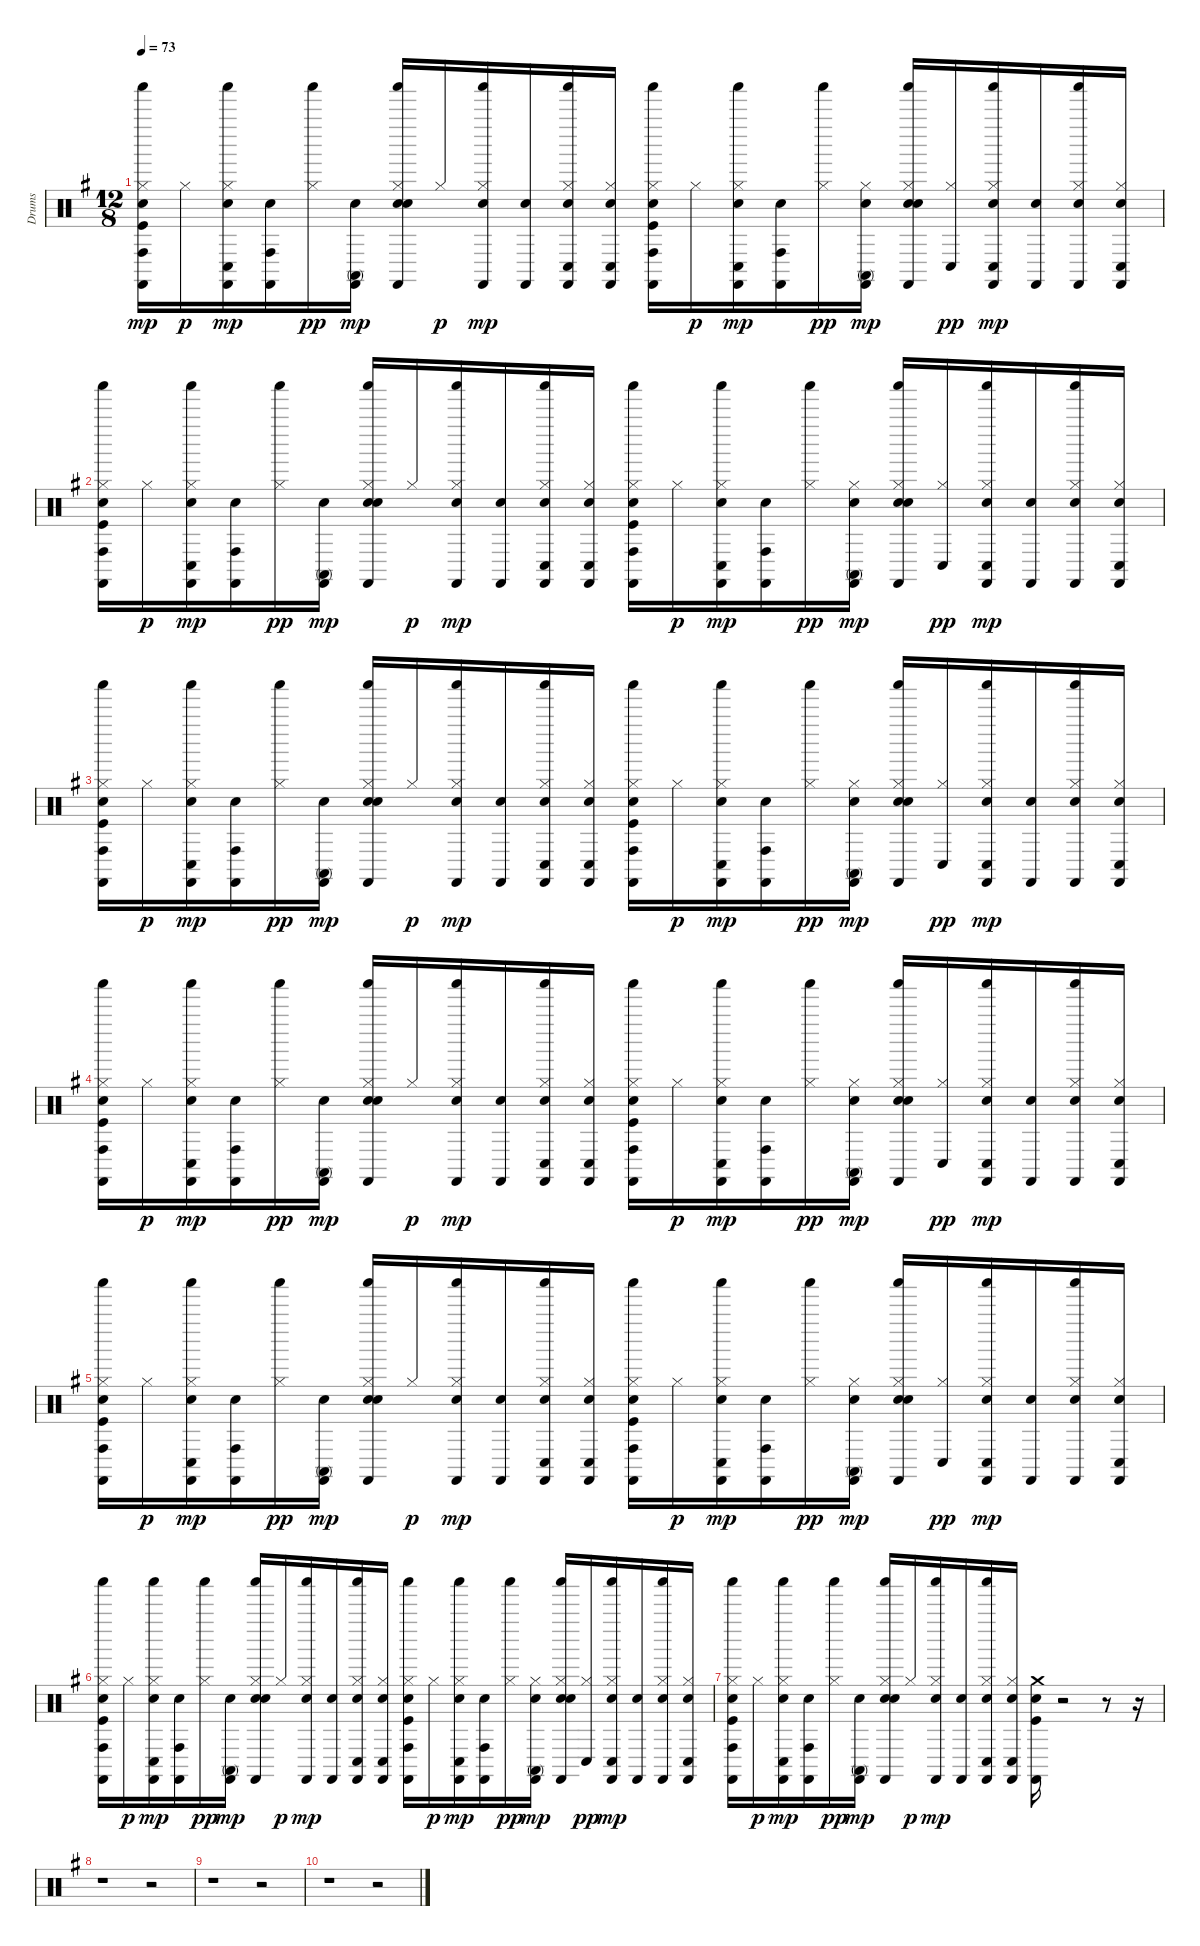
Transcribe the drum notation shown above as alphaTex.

\track ("Drums" "Drums") {instrument percussion}
\staff {score}
\articulation defaults
\ts (12 8)
\tempo 73
\clef neutral
\ks g
("Kick (hit)" "Hand Clap (hit)" "Hi-Hat (closed)" "Conga high (hit)" "Shaker (hit)" "Castanets (hit)").16{dy mp} "Hi-Hat (closed)".16{dy p} ("Hand Clap (hit)" "Hi-Hat (closed)" "Conga low (hit)" "Shaker (hit)" "Castanets (hit)").16{dy mp} ("Hand Clap (hit)" "Conga high (hit)" "Castanets (hit)").16 ("Hi-Hat (closed)" "Shaker (hit)").16{dy pp} ("Hand Clap (hit)" "Conga high (mute)" "Castanets (hit)").16{dy mp} ("Hand Clap (hit)" "Electric Snare (hit)" "Hi-Hat (closed)" "Shaker (hit)" "Castanets (hit)").16 "Hi-Hat (closed)".16{dy p} ("Hand Clap (hit)" "Hi-Hat (closed)" "Shaker (hit)" "Castanets (hit)").16{dy mp} ("Hand Clap (hit)" "Castanets (hit)").16 ("Hand Clap (hit)" "Hi-Hat (closed)" "Conga low (hit)" "Shaker (hit)" "Castanets (hit)").16 ("Hand Clap (hit)" "Hi-Hat (closed)" "Conga low (hit)" "Castanets (hit)").16 ("Kick (hit)" "Hand Clap (hit)" "Hi-Hat (closed)" "Conga high (hit)" "Shaker (hit)" "Castanets (hit)").16 "Hi-Hat (closed)".16{dy p} ("Hand Clap (hit)" "Hi-Hat (closed)" "Conga low (hit)" "Shaker (hit)" "Castanets (hit)").16{dy mp} ("Hand Clap (hit)" "Conga high (hit)" "Castanets (hit)").16 ("Hi-Hat (closed)" "Shaker (hit)").16{dy pp} ("Hand Clap (hit)" "Hi-Hat (closed)" "Conga high (mute)" "Castanets (hit)").16{dy mp} ("Hand Clap (hit)" "Electric Snare (hit)" "Hi-Hat (closed)" "Shaker (hit)" "Castanets (hit)").16 ("Hi-Hat (closed)" "Conga low (hit)").16{dy pp} ("Hand Clap (hit)" "Hi-Hat (closed)" "Conga low (hit)" "Shaker (hit)" "Castanets (hit)").16{dy mp} ("Hand Clap (hit)" "Castanets (hit)").16 ("Hand Clap (hit)" "Hi-Hat (closed)" "Shaker (hit)" "Castanets (hit)").16 ("Hand Clap (hit)" "Hi-Hat (closed)" "Conga low (hit)" "Castanets (hit)").16 |
("Kick (hit)" "Hand Clap (hit)" "Hi-Hat (closed)" "Conga high (hit)" "Shaker (hit)" "Castanets (hit)").16 "Hi-Hat (closed)".16{dy p} ("Hand Clap (hit)" "Hi-Hat (closed)" "Conga low (hit)" "Shaker (hit)" "Castanets (hit)").16{dy mp} ("Hand Clap (hit)" "Conga high (hit)" "Castanets (hit)").16 ("Hi-Hat (closed)" "Shaker (hit)").16{dy pp} ("Hand Clap (hit)" "Conga high (mute)" "Castanets (hit)").16{dy mp} ("Hand Clap (hit)" "Electric Snare (hit)" "Hi-Hat (closed)" "Shaker (hit)" "Castanets (hit)").16 "Hi-Hat (closed)".16{dy p} ("Hand Clap (hit)" "Hi-Hat (closed)" "Shaker (hit)" "Castanets (hit)").16{dy mp} ("Hand Clap (hit)" "Castanets (hit)").16 ("Hand Clap (hit)" "Hi-Hat (closed)" "Conga low (hit)" "Shaker (hit)" "Castanets (hit)").16 ("Hand Clap (hit)" "Hi-Hat (closed)" "Conga low (hit)" "Castanets (hit)").16 ("Kick (hit)" "Hand Clap (hit)" "Hi-Hat (closed)" "Conga high (hit)" "Shaker (hit)" "Castanets (hit)").16 "Hi-Hat (closed)".16{dy p} ("Hand Clap (hit)" "Hi-Hat (closed)" "Conga low (hit)" "Shaker (hit)" "Castanets (hit)").16{dy mp} ("Hand Clap (hit)" "Conga high (hit)" "Castanets (hit)").16 ("Hi-Hat (closed)" "Shaker (hit)").16{dy pp} ("Hand Clap (hit)" "Hi-Hat (closed)" "Conga high (mute)" "Castanets (hit)").16{dy mp} ("Hand Clap (hit)" "Electric Snare (hit)" "Hi-Hat (closed)" "Shaker (hit)" "Castanets (hit)").16 ("Hi-Hat (closed)" "Conga low (hit)").16{dy pp} ("Hand Clap (hit)" "Hi-Hat (closed)" "Conga low (hit)" "Shaker (hit)" "Castanets (hit)").16{dy mp} ("Hand Clap (hit)" "Castanets (hit)").16 ("Hand Clap (hit)" "Hi-Hat (closed)" "Shaker (hit)" "Castanets (hit)").16 ("Hand Clap (hit)" "Hi-Hat (closed)" "Conga low (hit)" "Castanets (hit)").16 |
("Kick (hit)" "Hand Clap (hit)" "Hi-Hat (closed)" "Conga high (hit)" "Shaker (hit)" "Castanets (hit)").16 "Hi-Hat (closed)".16{dy p} ("Hand Clap (hit)" "Hi-Hat (closed)" "Conga low (hit)" "Shaker (hit)" "Castanets (hit)").16{dy mp} ("Hand Clap (hit)" "Conga high (hit)" "Castanets (hit)").16 ("Hi-Hat (closed)" "Shaker (hit)").16{dy pp} ("Hand Clap (hit)" "Conga high (mute)" "Castanets (hit)").16{dy mp} ("Hand Clap (hit)" "Electric Snare (hit)" "Hi-Hat (closed)" "Shaker (hit)" "Castanets (hit)").16 "Hi-Hat (closed)".16{dy p} ("Hand Clap (hit)" "Hi-Hat (closed)" "Shaker (hit)" "Castanets (hit)").16{dy mp} ("Hand Clap (hit)" "Castanets (hit)").16 ("Hand Clap (hit)" "Hi-Hat (closed)" "Conga low (hit)" "Shaker (hit)" "Castanets (hit)").16 ("Hand Clap (hit)" "Hi-Hat (closed)" "Conga low (hit)" "Castanets (hit)").16 ("Kick (hit)" "Hand Clap (hit)" "Hi-Hat (closed)" "Conga high (hit)" "Shaker (hit)" "Castanets (hit)").16 "Hi-Hat (closed)".16{dy p} ("Hand Clap (hit)" "Hi-Hat (closed)" "Conga low (hit)" "Shaker (hit)" "Castanets (hit)").16{dy mp} ("Hand Clap (hit)" "Conga high (hit)" "Castanets (hit)").16 ("Hi-Hat (closed)" "Shaker (hit)").16{dy pp} ("Hand Clap (hit)" "Hi-Hat (closed)" "Conga high (mute)" "Castanets (hit)").16{dy mp} ("Hand Clap (hit)" "Electric Snare (hit)" "Hi-Hat (closed)" "Shaker (hit)" "Castanets (hit)").16 ("Hi-Hat (closed)" "Conga low (hit)").16{dy pp} ("Hand Clap (hit)" "Hi-Hat (closed)" "Conga low (hit)" "Shaker (hit)" "Castanets (hit)").16{dy mp} ("Hand Clap (hit)" "Castanets (hit)").16 ("Hand Clap (hit)" "Hi-Hat (closed)" "Shaker (hit)" "Castanets (hit)").16 ("Hand Clap (hit)" "Hi-Hat (closed)" "Conga low (hit)" "Castanets (hit)").16 |
("Kick (hit)" "Hand Clap (hit)" "Hi-Hat (closed)" "Conga high (hit)" "Shaker (hit)" "Castanets (hit)").16 "Hi-Hat (closed)".16{dy p} ("Hand Clap (hit)" "Hi-Hat (closed)" "Conga low (hit)" "Shaker (hit)" "Castanets (hit)").16{dy mp} ("Hand Clap (hit)" "Conga high (hit)" "Castanets (hit)").16 ("Hi-Hat (closed)" "Shaker (hit)").16{dy pp} ("Hand Clap (hit)" "Conga high (mute)" "Castanets (hit)").16{dy mp} ("Hand Clap (hit)" "Electric Snare (hit)" "Hi-Hat (closed)" "Shaker (hit)" "Castanets (hit)").16 "Hi-Hat (closed)".16{dy p} ("Hand Clap (hit)" "Hi-Hat (closed)" "Shaker (hit)" "Castanets (hit)").16{dy mp} ("Hand Clap (hit)" "Castanets (hit)").16 ("Hand Clap (hit)" "Hi-Hat (closed)" "Conga low (hit)" "Shaker (hit)" "Castanets (hit)").16 ("Hand Clap (hit)" "Hi-Hat (closed)" "Conga low (hit)" "Castanets (hit)").16 ("Kick (hit)" "Hand Clap (hit)" "Hi-Hat (closed)" "Conga high (hit)" "Shaker (hit)" "Castanets (hit)").16 "Hi-Hat (closed)".16{dy p} ("Hand Clap (hit)" "Hi-Hat (closed)" "Conga low (hit)" "Shaker (hit)" "Castanets (hit)").16{dy mp} ("Hand Clap (hit)" "Conga high (hit)" "Castanets (hit)").16 ("Hi-Hat (closed)" "Shaker (hit)").16{dy pp} ("Hand Clap (hit)" "Hi-Hat (closed)" "Conga high (mute)" "Castanets (hit)").16{dy mp} ("Hand Clap (hit)" "Electric Snare (hit)" "Hi-Hat (closed)" "Shaker (hit)" "Castanets (hit)").16 ("Hi-Hat (closed)" "Conga low (hit)").16{dy pp} ("Hand Clap (hit)" "Hi-Hat (closed)" "Conga low (hit)" "Shaker (hit)" "Castanets (hit)").16{dy mp} ("Hand Clap (hit)" "Castanets (hit)").16 ("Hand Clap (hit)" "Hi-Hat (closed)" "Shaker (hit)" "Castanets (hit)").16 ("Hand Clap (hit)" "Hi-Hat (closed)" "Conga low (hit)" "Castanets (hit)").16 |
("Kick (hit)" "Hand Clap (hit)" "Hi-Hat (closed)" "Conga high (hit)" "Shaker (hit)" "Castanets (hit)").16 "Hi-Hat (closed)".16{dy p} ("Hand Clap (hit)" "Hi-Hat (closed)" "Conga low (hit)" "Shaker (hit)" "Castanets (hit)").16{dy mp} ("Hand Clap (hit)" "Conga high (hit)" "Castanets (hit)").16 ("Hi-Hat (closed)" "Shaker (hit)").16{dy pp} ("Hand Clap (hit)" "Conga high (mute)" "Castanets (hit)").16{dy mp} ("Hand Clap (hit)" "Electric Snare (hit)" "Hi-Hat (closed)" "Shaker (hit)" "Castanets (hit)").16 "Hi-Hat (closed)".16{dy p} ("Hand Clap (hit)" "Hi-Hat (closed)" "Shaker (hit)" "Castanets (hit)").16{dy mp} ("Hand Clap (hit)" "Castanets (hit)").16 ("Hand Clap (hit)" "Hi-Hat (closed)" "Conga low (hit)" "Shaker (hit)" "Castanets (hit)").16 ("Hand Clap (hit)" "Hi-Hat (closed)" "Conga low (hit)" "Castanets (hit)").16 ("Kick (hit)" "Hand Clap (hit)" "Hi-Hat (closed)" "Conga high (hit)" "Shaker (hit)" "Castanets (hit)").16 "Hi-Hat (closed)".16{dy p} ("Hand Clap (hit)" "Hi-Hat (closed)" "Conga low (hit)" "Shaker (hit)" "Castanets (hit)").16{dy mp} ("Hand Clap (hit)" "Conga high (hit)" "Castanets (hit)").16 ("Hi-Hat (closed)" "Shaker (hit)").16{dy pp} ("Hand Clap (hit)" "Hi-Hat (closed)" "Conga high (mute)" "Castanets (hit)").16{dy mp} ("Hand Clap (hit)" "Electric Snare (hit)" "Hi-Hat (closed)" "Shaker (hit)" "Castanets (hit)").16 ("Hi-Hat (closed)" "Conga low (hit)").16{dy pp} ("Hand Clap (hit)" "Hi-Hat (closed)" "Conga low (hit)" "Shaker (hit)" "Castanets (hit)").16{dy mp} ("Hand Clap (hit)" "Castanets (hit)").16 ("Hand Clap (hit)" "Hi-Hat (closed)" "Shaker (hit)" "Castanets (hit)").16 ("Hand Clap (hit)" "Hi-Hat (closed)" "Conga low (hit)" "Castanets (hit)").16 |
("Kick (hit)" "Hand Clap (hit)" "Hi-Hat (closed)" "Conga high (hit)" "Shaker (hit)" "Castanets (hit)").16 "Hi-Hat (closed)".16{dy p} ("Hand Clap (hit)" "Hi-Hat (closed)" "Conga low (hit)" "Shaker (hit)" "Castanets (hit)").16{dy mp} ("Hand Clap (hit)" "Conga high (hit)" "Castanets (hit)").16 ("Hi-Hat (closed)" "Shaker (hit)").16{dy pp} ("Hand Clap (hit)" "Conga high (mute)" "Castanets (hit)").16{dy mp} ("Hand Clap (hit)" "Electric Snare (hit)" "Hi-Hat (closed)" "Shaker (hit)" "Castanets (hit)").16 "Hi-Hat (closed)".16{dy p} ("Hand Clap (hit)" "Hi-Hat (closed)" "Shaker (hit)" "Castanets (hit)").16{dy mp} ("Hand Clap (hit)" "Castanets (hit)").16 ("Hand Clap (hit)" "Hi-Hat (closed)" "Conga low (hit)" "Shaker (hit)" "Castanets (hit)").16 ("Hand Clap (hit)" "Hi-Hat (closed)" "Conga low (hit)" "Castanets (hit)").16 ("Kick (hit)" "Hand Clap (hit)" "Hi-Hat (closed)" "Conga high (hit)" "Shaker (hit)" "Castanets (hit)").16 "Hi-Hat (closed)".16{dy p} ("Hand Clap (hit)" "Hi-Hat (closed)" "Conga low (hit)" "Shaker (hit)" "Castanets (hit)").16{dy mp} ("Hand Clap (hit)" "Conga high (hit)" "Castanets (hit)").16 ("Hi-Hat (closed)" "Shaker (hit)").16{dy pp} ("Hand Clap (hit)" "Hi-Hat (closed)" "Conga high (mute)" "Castanets (hit)").16{dy mp} ("Hand Clap (hit)" "Electric Snare (hit)" "Hi-Hat (closed)" "Shaker (hit)" "Castanets (hit)").16 ("Hi-Hat (closed)" "Conga low (hit)").16{dy pp} ("Hand Clap (hit)" "Hi-Hat (closed)" "Conga low (hit)" "Shaker (hit)" "Castanets (hit)").16{dy mp} ("Hand Clap (hit)" "Castanets (hit)").16 ("Hand Clap (hit)" "Hi-Hat (closed)" "Shaker (hit)" "Castanets (hit)").16 ("Hand Clap (hit)" "Hi-Hat (closed)" "Conga low (hit)" "Castanets (hit)").16 |
("Kick (hit)" "Hand Clap (hit)" "Hi-Hat (closed)" "Conga high (hit)" "Shaker (hit)" "Castanets (hit)").16 "Hi-Hat (closed)".16{dy p} ("Hand Clap (hit)" "Hi-Hat (closed)" "Conga low (hit)" "Shaker (hit)" "Castanets (hit)").16{dy mp} ("Hand Clap (hit)" "Conga high (hit)" "Castanets (hit)").16 ("Hi-Hat (closed)" "Shaker (hit)").16{dy pp} ("Hand Clap (hit)" "Conga high (mute)" "Castanets (hit)").16{dy mp} ("Hand Clap (hit)" "Electric Snare (hit)" "Hi-Hat (closed)" "Shaker (hit)" "Castanets (hit)").16 "Hi-Hat (closed)".16{dy p} ("Hand Clap (hit)" "Hi-Hat (closed)" "Shaker (hit)" "Castanets (hit)").16{dy mp} ("Hand Clap (hit)" "Castanets (hit)").16 ("Hand Clap (hit)" "Hi-Hat (closed)" "Conga low (hit)" "Shaker (hit)" "Castanets (hit)").16 ("Hand Clap (hit)" "Hi-Hat (closed)" "Conga low (hit)" "Castanets (hit)").16 ("Kick (hit)" "Hand Clap (hit)" "Crash medium (hit)" "Castanets (hit)").16 r.2 r.8 r.16 |
r.1 r.2 |
r.1 r.2 |
r.1 r.2
